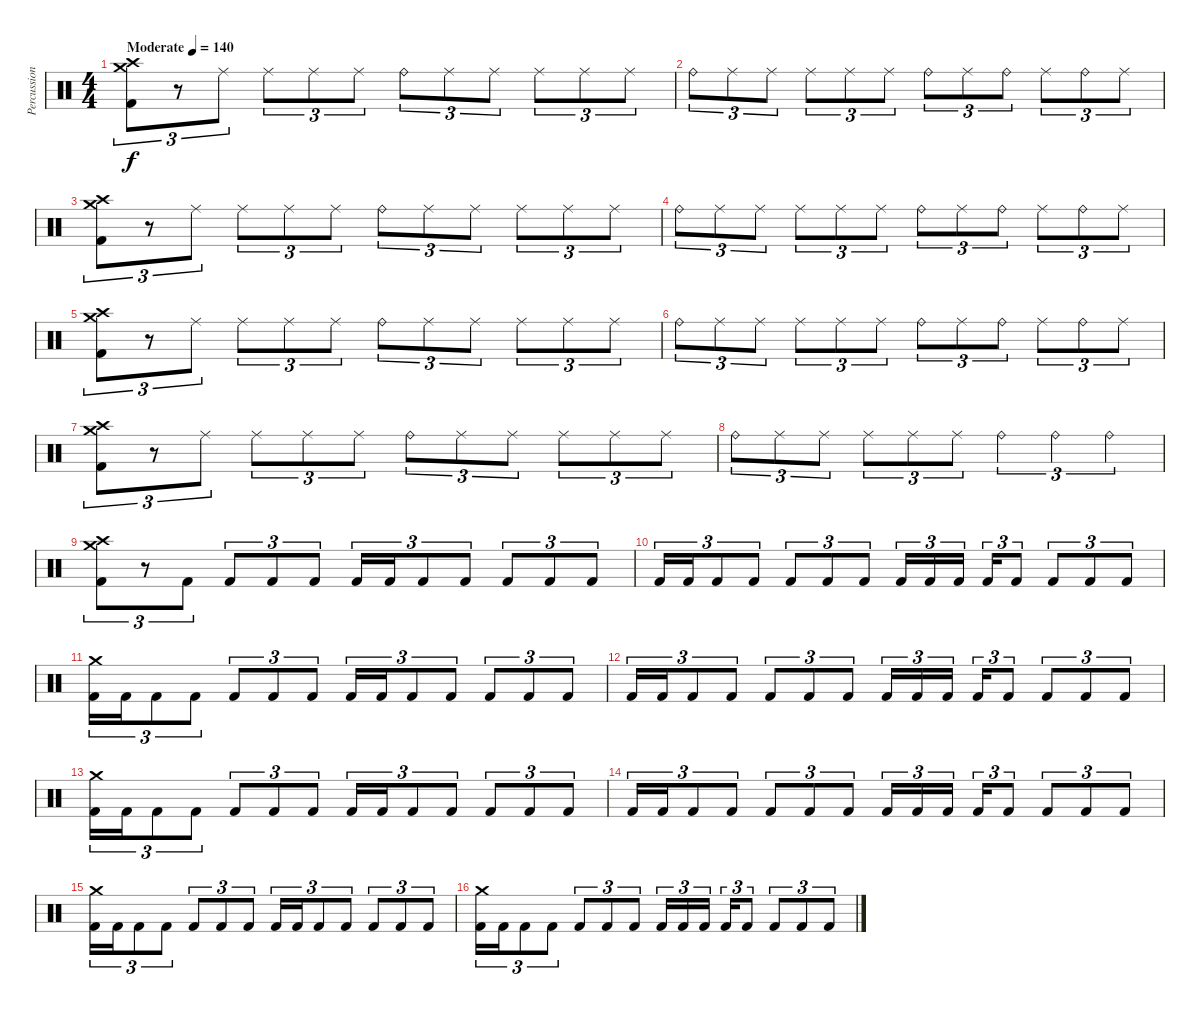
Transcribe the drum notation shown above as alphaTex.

\track ("Percussion" "Percussion") {instrument percussion}
\staff {score}
\articulation defaults
\ts (4 4)
\tempo (140 "Moderate")
\clef neutral
\ks c
("Crash high (hit)" "Crash medium (hit)" "Kick (hit) 2").8{tu (3 2) dy f} r.8{tu (3 2)} "Ride (middle)".8{tu (3 2)} "Ride (middle)".8{tu (3 2)} "Ride (middle)".8{tu (3 2)} "Ride (middle)".8{tu (3 2)} "Ride (bell)".8{tu (3 2)} "Ride (middle)".8{tu (3 2)} "Ride (middle)".8{tu (3 2)} "Ride (middle)".8{tu (3 2)} "Ride (middle)".8{tu (3 2)} "Ride (middle)".8{tu (3 2)} |
"Ride (bell)".8{tu (3 2)} "Ride (middle)".8{tu (3 2)} "Ride (middle)".8{tu (3 2)} "Ride (middle)".8{tu (3 2)} "Ride (middle)".8{tu (3 2)} "Ride (middle)".8{tu (3 2)} "Ride (bell)".8{tu (3 2)} "Ride (middle)".8{tu (3 2)} "Ride (bell)".8{tu (3 2)} "Ride (middle)".8{tu (3 2)} "Ride (bell)".8{tu (3 2)} "Ride (middle)".8{tu (3 2)} |
("Crash high (hit)" "Crash medium (hit)" "Kick (hit) 2").8{tu (3 2)} r.8{tu (3 2)} "Ride (middle)".8{tu (3 2)} "Ride (middle)".8{tu (3 2)} "Ride (middle)".8{tu (3 2)} "Ride (middle)".8{tu (3 2)} "Ride (bell)".8{tu (3 2)} "Ride (middle)".8{tu (3 2)} "Ride (middle)".8{tu (3 2)} "Ride (middle)".8{tu (3 2)} "Ride (middle)".8{tu (3 2)} "Ride (middle)".8{tu (3 2)} |
"Ride (bell)".8{tu (3 2)} "Ride (middle)".8{tu (3 2)} "Ride (middle)".8{tu (3 2)} "Ride (middle)".8{tu (3 2)} "Ride (middle)".8{tu (3 2)} "Ride (middle)".8{tu (3 2)} "Ride (bell)".8{tu (3 2)} "Ride (middle)".8{tu (3 2)} "Ride (bell)".8{tu (3 2)} "Ride (middle)".8{tu (3 2)} "Ride (bell)".8{tu (3 2)} "Ride (middle)".8{tu (3 2)} |
("Crash high (hit)" "Crash medium (hit)" "Kick (hit) 2").8{tu (3 2)} r.8{tu (3 2)} "Ride (middle)".8{tu (3 2)} "Ride (middle)".8{tu (3 2)} "Ride (middle)".8{tu (3 2)} "Ride (middle)".8{tu (3 2)} "Ride (bell)".8{tu (3 2)} "Ride (middle)".8{tu (3 2)} "Ride (middle)".8{tu (3 2)} "Ride (middle)".8{tu (3 2)} "Ride (middle)".8{tu (3 2)} "Ride (middle)".8{tu (3 2)} |
"Ride (bell)".8{tu (3 2)} "Ride (middle)".8{tu (3 2)} "Ride (middle)".8{tu (3 2)} "Ride (middle)".8{tu (3 2)} "Ride (middle)".8{tu (3 2)} "Ride (middle)".8{tu (3 2)} "Ride (bell)".8{tu (3 2)} "Ride (middle)".8{tu (3 2)} "Ride (bell)".8{tu (3 2)} "Ride (middle)".8{tu (3 2)} "Ride (bell)".8{tu (3 2)} "Ride (middle)".8{tu (3 2)} |
("Crash high (hit)" "Crash medium (hit)" "Kick (hit) 2").8{tu (3 2)} r.8{tu (3 2)} "Ride (middle)".8{tu (3 2)} "Ride (middle)".8{tu (3 2)} "Ride (middle)".8{tu (3 2)} "Ride (middle)".8{tu (3 2)} "Ride (bell)".8{tu (3 2)} "Ride (middle)".8{tu (3 2)} "Ride (middle)".8{tu (3 2)} "Ride (middle)".8{tu (3 2)} "Ride (middle)".8{tu (3 2)} "Ride (middle)".8{tu (3 2)} |
"Ride (bell)".8{tu (3 2)} "Ride (middle)".8{tu (3 2)} "Ride (middle)".8{tu (3 2)} "Ride (middle)".8{tu (3 2)} "Ride (middle)".8{tu (3 2)} "Ride (middle)".8{tu (3 2)} "Ride (bell)".4{tu (3 2)} "Ride (bell)".4{tu (3 2)} "Ride (bell)".4{tu (3 2)} |
("Crash high (hit)" "Crash medium (hit)" "Kick (hit) 2").8{tu (3 2)} r.8{tu (3 2)} "Kick (hit) 2".8{tu (3 2)} "Kick (hit) 2".8{tu (3 2)} "Kick (hit) 2".8{tu (3 2)} "Kick (hit) 2".8{tu (3 2)} "Kick (hit) 2".16{tu (3 2)} "Kick (hit) 2".16{tu (3 2)} "Kick (hit) 2".8{tu (3 2)} "Kick (hit) 2".8{tu (3 2)} "Kick (hit) 2".8{tu (3 2)} "Kick (hit) 2".8{tu (3 2)} "Kick (hit) 2".8{tu (3 2)} |
"Kick (hit) 2".16{tu (3 2)} "Kick (hit) 2".16{tu (3 2)} "Kick (hit) 2".8{tu (3 2)} "Kick (hit) 2".8{tu (3 2)} "Kick (hit) 2".8{tu (3 2)} "Kick (hit) 2".8{tu (3 2)} "Kick (hit) 2".8{tu (3 2)} "Kick (hit) 2".16{tu (3 2)} "Kick (hit) 2".16{tu (3 2)} "Kick (hit) 2".16{tu (3 2) beam splitsecondary} "Kick (hit) 2".16{tu (3 2)} "Kick (hit) 2".8{tu (3 2)} "Kick (hit) 2".8{tu (3 2)} "Kick (hit) 2".8{tu (3 2)} "Kick (hit) 2".8{tu (3 2)} |
("Crash medium (hit)" "Kick (hit) 2").16{tu (3 2)} "Kick (hit) 2".16{tu (3 2)} "Kick (hit) 2".8{tu (3 2)} "Kick (hit) 2".8{tu (3 2)} "Kick (hit) 2".8{tu (3 2)} "Kick (hit) 2".8{tu (3 2)} "Kick (hit) 2".8{tu (3 2)} "Kick (hit) 2".16{tu (3 2)} "Kick (hit) 2".16{tu (3 2)} "Kick (hit) 2".8{tu (3 2)} "Kick (hit) 2".8{tu (3 2)} "Kick (hit) 2".8{tu (3 2)} "Kick (hit) 2".8{tu (3 2)} "Kick (hit) 2".8{tu (3 2)} |
"Kick (hit) 2".16{tu (3 2)} "Kick (hit) 2".16{tu (3 2)} "Kick (hit) 2".8{tu (3 2)} "Kick (hit) 2".8{tu (3 2)} "Kick (hit) 2".8{tu (3 2)} "Kick (hit) 2".8{tu (3 2)} "Kick (hit) 2".8{tu (3 2)} "Kick (hit) 2".16{tu (3 2)} "Kick (hit) 2".16{tu (3 2)} "Kick (hit) 2".16{tu (3 2) beam splitsecondary} "Kick (hit) 2".16{tu (3 2)} "Kick (hit) 2".8{tu (3 2)} "Kick (hit) 2".8{tu (3 2)} "Kick (hit) 2".8{tu (3 2)} "Kick (hit) 2".8{tu (3 2)} |
("Crash medium (hit)" "Kick (hit) 2").16{tu (3 2)} "Kick (hit) 2".16{tu (3 2)} "Kick (hit) 2".8{tu (3 2)} "Kick (hit) 2".8{tu (3 2)} "Kick (hit) 2".8{tu (3 2)} "Kick (hit) 2".8{tu (3 2)} "Kick (hit) 2".8{tu (3 2)} "Kick (hit) 2".16{tu (3 2)} "Kick (hit) 2".16{tu (3 2)} "Kick (hit) 2".8{tu (3 2)} "Kick (hit) 2".8{tu (3 2)} "Kick (hit) 2".8{tu (3 2)} "Kick (hit) 2".8{tu (3 2)} "Kick (hit) 2".8{tu (3 2)} |
"Kick (hit) 2".16{tu (3 2)} "Kick (hit) 2".16{tu (3 2)} "Kick (hit) 2".8{tu (3 2)} "Kick (hit) 2".8{tu (3 2)} "Kick (hit) 2".8{tu (3 2)} "Kick (hit) 2".8{tu (3 2)} "Kick (hit) 2".8{tu (3 2)} "Kick (hit) 2".16{tu (3 2)} "Kick (hit) 2".16{tu (3 2)} "Kick (hit) 2".16{tu (3 2) beam splitsecondary} "Kick (hit) 2".16{tu (3 2)} "Kick (hit) 2".8{tu (3 2)} "Kick (hit) 2".8{tu (3 2)} "Kick (hit) 2".8{tu (3 2)} "Kick (hit) 2".8{tu (3 2)} |
("Crash medium (hit)" "Kick (hit) 2").16{tu (3 2)} "Kick (hit) 2".16{tu (3 2)} "Kick (hit) 2".8{tu (3 2)} "Kick (hit) 2".8{tu (3 2)} "Kick (hit) 2".8{tu (3 2)} "Kick (hit) 2".8{tu (3 2)} "Kick (hit) 2".8{tu (3 2)} "Kick (hit) 2".16{tu (3 2)} "Kick (hit) 2".16{tu (3 2)} "Kick (hit) 2".8{tu (3 2)} "Kick (hit) 2".8{tu (3 2)} "Kick (hit) 2".8{tu (3 2)} "Kick (hit) 2".8{tu (3 2)} "Kick (hit) 2".8{tu (3 2)} |
("Crash medium (hit)" "Kick (hit) 2").16{tu (3 2)} "Kick (hit) 2".16{tu (3 2)} "Kick (hit) 2".8{tu (3 2)} "Kick (hit) 2".8{tu (3 2)} "Kick (hit) 2".8{tu (3 2)} "Kick (hit) 2".8{tu (3 2)} "Kick (hit) 2".8{tu (3 2)} "Kick (hit) 2".16{tu (3 2)} "Kick (hit) 2".16{tu (3 2)} "Kick (hit) 2".16{tu (3 2) beam splitsecondary} "Kick (hit) 2".16{tu (3 2)} "Kick (hit) 2".8{tu (3 2)} "Kick (hit) 2".8{tu (3 2)} "Kick (hit) 2".8{tu (3 2)} "Kick (hit) 2".8{tu (3 2)}
